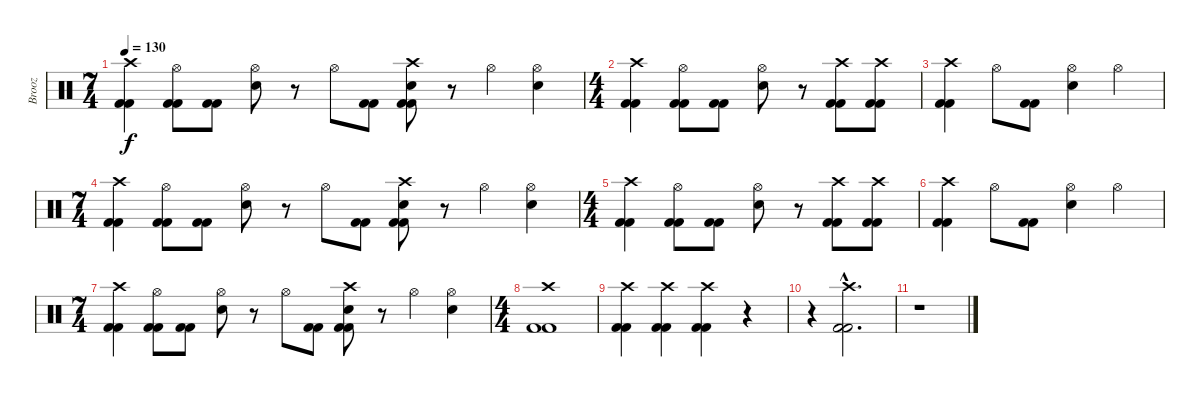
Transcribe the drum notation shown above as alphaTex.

\track ("Brooz" "Brooz") {instrument percussion}
\staff {score}
\articulation defaults
\ts (7 4)
\tempo 130
\clef neutral
\ks c
("Crash high (hit)" "Kick (hit) 2" "Kick (hit) 2").4{dy f} ("Hi-Hat (open)" "Kick (hit) 2" "Kick (hit) 2").8 ("Kick (hit) 2" "Kick (hit) 2").8 ("Hi-Hat (open)" "Snare (hit) 2").8 r.8 "Hi-Hat (open)".8 ("Kick (hit) 2" "Kick (hit) 2").8 ("Crash high (hit)" "Snare (hit) 2" "Kick (hit) 2" "Kick (hit) 2").8 r.8 "Hi-Hat (open)".4 ("Hi-Hat (open)" "Snare (hit) 2").4 |
\ts (4 4)
("Crash high (hit)" "Kick (hit) 2" "Kick (hit) 2").4 ("Hi-Hat (open)" "Kick (hit) 2" "Kick (hit) 2").8 ("Kick (hit) 2" "Kick (hit) 2").8 ("Hi-Hat (open)" "Snare (hit) 2").8 r.8 ("Crash high (hit)" "Kick (hit) 2" "Kick (hit) 2").8 ("Crash high (hit)" "Kick (hit) 2" "Kick (hit) 2").8 |
("Crash high (hit)" "Kick (hit) 2" "Kick (hit) 2").4 "Hi-Hat (open)".8 ("Kick (hit) 2" "Kick (hit) 2").8 ("Hi-Hat (open)" "Snare (hit) 2").4 "Hi-Hat (open)".4 |
\ts (7 4)
("Crash high (hit)" "Kick (hit) 2" "Kick (hit) 2").4 ("Hi-Hat (open)" "Kick (hit) 2" "Kick (hit) 2").8 ("Kick (hit) 2" "Kick (hit) 2").8 ("Hi-Hat (open)" "Snare (hit) 2").8 r.8 "Hi-Hat (open)".8 ("Kick (hit) 2" "Kick (hit) 2").8 ("Crash high (hit)" "Snare (hit) 2" "Kick (hit) 2" "Kick (hit) 2").8 r.8 "Hi-Hat (open)".4 ("Hi-Hat (open)" "Snare (hit) 2").4 |
\ts (4 4)
("Crash high (hit)" "Kick (hit) 2" "Kick (hit) 2").4 ("Hi-Hat (open)" "Kick (hit) 2" "Kick (hit) 2").8 ("Kick (hit) 2" "Kick (hit) 2").8 ("Hi-Hat (open)" "Snare (hit) 2").8 r.8 ("Crash high (hit)" "Kick (hit) 2" "Kick (hit) 2").8 ("Crash high (hit)" "Kick (hit) 2" "Kick (hit) 2").8 |
("Crash high (hit)" "Kick (hit) 2" "Kick (hit) 2").4 "Hi-Hat (open)".8 ("Kick (hit) 2" "Kick (hit) 2").8 ("Hi-Hat (open)" "Snare (hit) 2").4 "Hi-Hat (open)".4 |
\ts (7 4)
("Crash high (hit)" "Kick (hit) 2" "Kick (hit) 2").4 ("Hi-Hat (open)" "Kick (hit) 2" "Kick (hit) 2").8 ("Kick (hit) 2" "Kick (hit) 2").8 ("Hi-Hat (open)" "Snare (hit) 2").8 r.8 "Hi-Hat (open)".8 ("Kick (hit) 2" "Kick (hit) 2").8 ("Crash high (hit)" "Snare (hit) 2" "Kick (hit) 2" "Kick (hit) 2").8 r.8 "Hi-Hat (open)".4 ("Hi-Hat (open)" "Snare (hit) 2").4 |
\ts (4 4)
("Crash high (hit)" "Kick (hit) 2" "Kick (hit) 2").1 |
("Crash high (hit)" "Kick (hit) 2" "Kick (hit) 2").4 ("Crash high (hit)" "Kick (hit) 2" "Kick (hit) 2").4 ("Crash high (hit)" "Kick (hit) 2" "Kick (hit) 2").4 r.4 |
r.4 ("Crash high (hit)"{hac} "Kick (hit) 2"{hac} "Kick (hit) 2"{hac}).2{d} |
r.1
